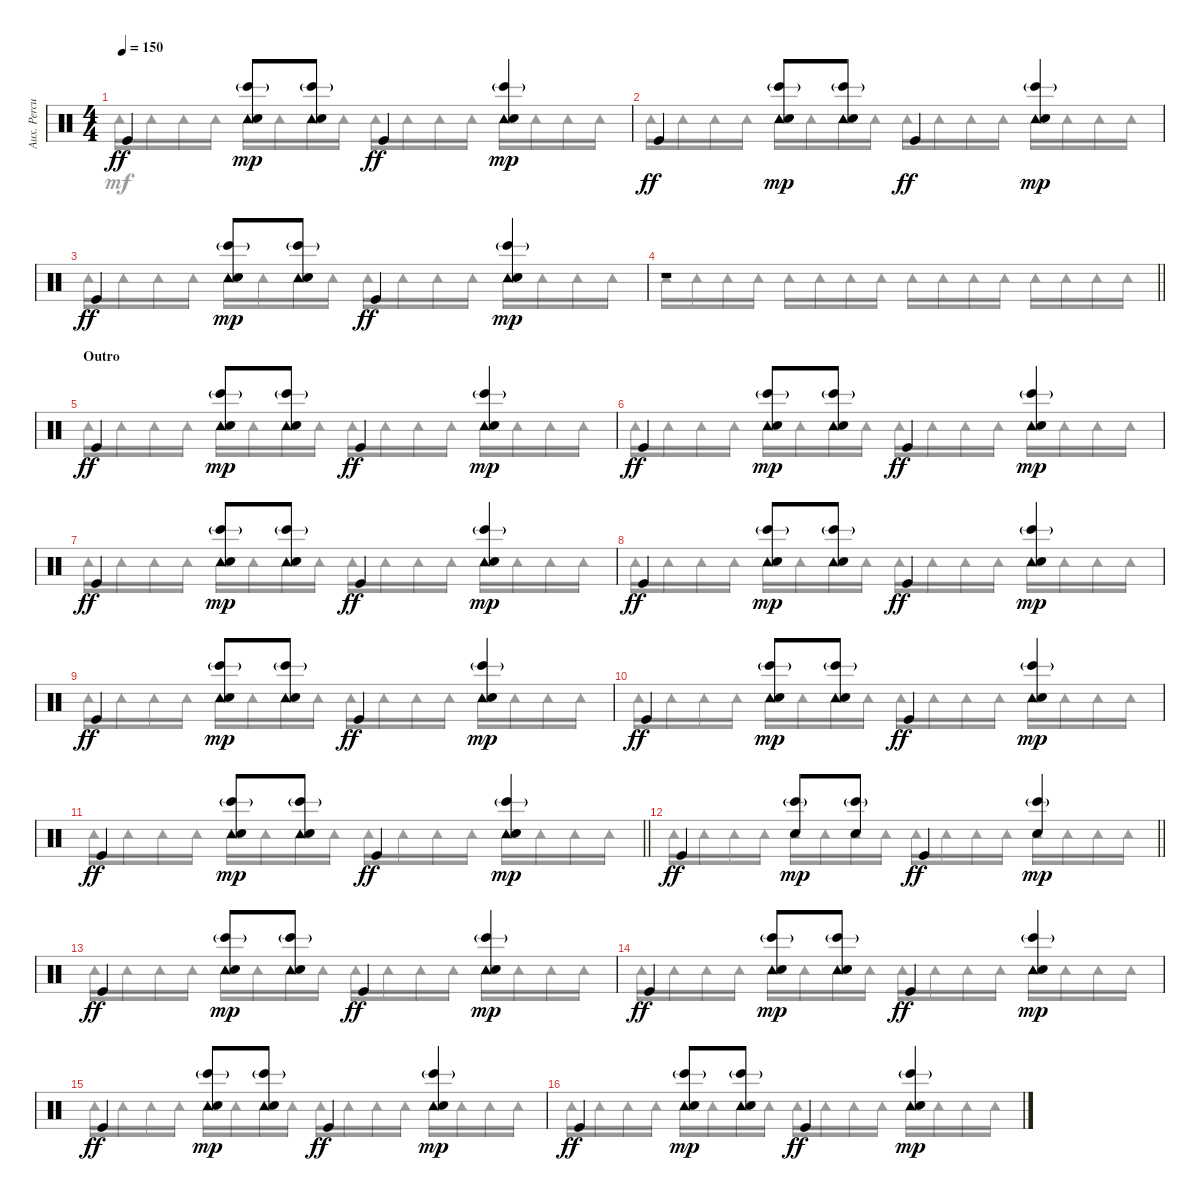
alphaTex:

\track ("Aux. Percussion" "Aux. Percu") {instrument percussion}
\staff {score}
\articulation defaults
\voice
\ts (4 4)
\tempo 150
\clef neutral
\ks c "Kick (hit)".4{dy ff}
("Tambourine (hit)" "Hand Clap (hit)" "Bongo High (hit)"{g}).8{dy mp} ("Tambourine (hit)" "Hand Clap (hit)" "Bongo High (hit)"{g}).8 "Kick (hit)".4{dy ff} ("Tambourine (hit)" "Hand Clap (hit)" "Bongo High (hit)"{g}).4{dy mp} |
"Kick (hit)".4{dy ff} ("Tambourine (hit)" "Hand Clap (hit)" "Bongo High (hit)"{g}).8{dy mp} ("Tambourine (hit)" "Hand Clap (hit)" "Bongo High (hit)"{g}).8 "Kick (hit)".4{dy ff} ("Tambourine (hit)" "Hand Clap (hit)" "Bongo High (hit)"{g}).4{dy mp} |
"Kick (hit)".4{dy ff} ("Tambourine (hit)" "Hand Clap (hit)" "Bongo High (hit)"{g}).8{dy mp} ("Tambourine (hit)" "Hand Clap (hit)" "Bongo High (hit)"{g}).8 "Kick (hit)".4{dy ff} ("Tambourine (hit)" "Hand Clap (hit)" "Bongo High (hit)"{g}).4{dy mp} |
\barLineRight lightlight
r.1 |
\section ("" "Outro")
"Kick (hit)".4{dy ff} ("Tambourine (hit)" "Hand Clap (hit)" "Bongo High (hit)"{g}).8{dy mp} ("Tambourine (hit)" "Hand Clap (hit)" "Bongo High (hit)"{g}).8 "Kick (hit)".4{dy ff} ("Tambourine (hit)" "Hand Clap (hit)" "Bongo High (hit)"{g}).4{dy mp} |
"Kick (hit)".4{dy ff} ("Tambourine (hit)" "Hand Clap (hit)" "Bongo High (hit)"{g}).8{dy mp} ("Tambourine (hit)" "Hand Clap (hit)" "Bongo High (hit)"{g}).8 "Kick (hit)".4{dy ff} ("Tambourine (hit)" "Hand Clap (hit)" "Bongo High (hit)"{g}).4{dy mp} |
"Kick (hit)".4{dy ff} ("Tambourine (hit)" "Hand Clap (hit)" "Bongo High (hit)"{g}).8{dy mp} ("Tambourine (hit)" "Hand Clap (hit)" "Bongo High (hit)"{g}).8 "Kick (hit)".4{dy ff} ("Tambourine (hit)" "Hand Clap (hit)" "Bongo High (hit)"{g}).4{dy mp} |
"Kick (hit)".4{dy ff} ("Tambourine (hit)" "Hand Clap (hit)" "Bongo High (hit)"{g}).8{dy mp} ("Tambourine (hit)" "Hand Clap (hit)" "Bongo High (hit)"{g}).8 "Kick (hit)".4{dy ff} ("Tambourine (hit)" "Hand Clap (hit)" "Bongo High (hit)"{g}).4{dy mp} |
"Kick (hit)".4{dy ff} ("Tambourine (hit)" "Hand Clap (hit)" "Bongo High (hit)"{g}).8{dy mp} ("Tambourine (hit)" "Hand Clap (hit)" "Bongo High (hit)"{g}).8 "Kick (hit)".4{dy ff} ("Tambourine (hit)" "Hand Clap (hit)" "Bongo High (hit)"{g}).4{dy mp} |
"Kick (hit)".4{dy ff} ("Tambourine (hit)" "Hand Clap (hit)" "Bongo High (hit)"{g}).8{dy mp} ("Tambourine (hit)" "Hand Clap (hit)" "Bongo High (hit)"{g}).8 "Kick (hit)".4{dy ff} ("Tambourine (hit)" "Hand Clap (hit)" "Bongo High (hit)"{g}).4{dy mp} |
\barLineRight lightlight "Kick (hit)".4{dy ff}
("Tambourine (hit)" "Hand Clap (hit)" "Bongo High (hit)"{g}).8{dy mp} ("Tambourine (hit)" "Hand Clap (hit)" "Bongo High (hit)"{g}).8 "Kick (hit)".4{dy ff} ("Tambourine (hit)" "Hand Clap (hit)" "Bongo High (hit)"{g}).4{dy mp} |
\barLineRight lightlight "Kick (hit)".4{dy ff}
("Hand Clap (hit)" "Bongo High (hit)"{g}).8{dy mp} ("Hand Clap (hit)" "Bongo High (hit)"{g}).8 "Kick (hit)".4{dy ff} ("Hand Clap (hit)" "Bongo High (hit)"{g}).4{dy mp} |
"Kick (hit)".4{dy ff} ("Tambourine (hit)" "Hand Clap (hit)" "Bongo High (hit)"{g}).8{dy mp} ("Tambourine (hit)" "Hand Clap (hit)" "Bongo High (hit)"{g}).8 "Kick (hit)".4{dy ff} ("Tambourine (hit)" "Hand Clap (hit)" "Bongo High (hit)"{g}).4{dy mp} |
"Kick (hit)".4{dy ff} ("Tambourine (hit)" "Hand Clap (hit)" "Bongo High (hit)"{g}).8{dy mp} ("Tambourine (hit)" "Hand Clap (hit)" "Bongo High (hit)"{g}).8 "Kick (hit)".4{dy ff} ("Tambourine (hit)" "Hand Clap (hit)" "Bongo High (hit)"{g}).4{dy mp} |
"Kick (hit)".4{dy ff} ("Tambourine (hit)" "Hand Clap (hit)" "Bongo High (hit)"{g}).8{dy mp} ("Tambourine (hit)" "Hand Clap (hit)" "Bongo High (hit)"{g}).8 "Kick (hit)".4{dy ff} ("Tambourine (hit)" "Hand Clap (hit)" "Bongo High (hit)"{g}).4{dy mp} |
"Kick (hit)".4{dy ff} ("Tambourine (hit)" "Hand Clap (hit)" "Bongo High (hit)"{g}).8{dy mp} ("Tambourine (hit)" "Hand Clap (hit)" "Bongo High (hit)"{g}).8 "Kick (hit)".4{dy ff} ("Tambourine (hit)" "Hand Clap (hit)" "Bongo High (hit)"{g}).4{dy mp}
\voice
\clef neutral
\ottava regular
\simile none
\ks c "Tambourine (hit)".16{dy mf} "Tambourine (hit)".16 "Tambourine (hit)".16 "Tambourine (hit)".16 "Tambourine (hit)".16 "Tambourine (hit)".16 "Tambourine (hit)".16 "Tambourine (hit)".16 "Tambourine (hit)".16 "Tambourine (hit)".16 "Tambourine (hit)".16 "Tambourine (hit)".16 "Tambourine (hit)".16 "Tambourine (hit)".16 "Tambourine (hit)".16 "Tambourine (hit)".16
|
"Tambourine (hit)".16 "Tambourine (hit)".16 "Tambourine (hit)".16 "Tambourine (hit)".16 "Tambourine (hit)".16 "Tambourine (hit)".16 "Tambourine (hit)".16 "Tambourine (hit)".16 "Tambourine (hit)".16 "Tambourine (hit)".16 "Tambourine (hit)".16 "Tambourine (hit)".16 "Tambourine (hit)".16 "Tambourine (hit)".16 "Tambourine (hit)".16 "Tambourine (hit)".16 |
"Tambourine (hit)".16 "Tambourine (hit)".16 "Tambourine (hit)".16 "Tambourine (hit)".16 "Tambourine (hit)".16 "Tambourine (hit)".16 "Tambourine (hit)".16 "Tambourine (hit)".16 "Tambourine (hit)".16 "Tambourine (hit)".16 "Tambourine (hit)".16 "Tambourine (hit)".16 "Tambourine (hit)".16 "Tambourine (hit)".16 "Tambourine (hit)".16 "Tambourine (hit)".16 |
\barLineRight lightlight "Tambourine (hit)".16 "Tambourine (hit)".16 "Tambourine (hit)".16 "Tambourine (hit)".16 "Tambourine (hit)".16 "Tambourine (hit)".16 "Tambourine (hit)".16 "Tambourine (hit)".16 "Tambourine (hit)".16 "Tambourine (hit)".16 "Tambourine (hit)".16 "Tambourine (hit)".16 "Tambourine (hit)".16 "Tambourine (hit)".16 "Tambourine (hit)".16 "Tambourine (hit)".16
|
"Tambourine (hit)".16 "Tambourine (hit)".16 "Tambourine (hit)".16 "Tambourine (hit)".16 "Tambourine (hit)".16 "Tambourine (hit)".16 "Tambourine (hit)".16 "Tambourine (hit)".16 "Tambourine (hit)".16 "Tambourine (hit)".16 "Tambourine (hit)".16 "Tambourine (hit)".16 "Tambourine (hit)".16 "Tambourine (hit)".16 "Tambourine (hit)".16 "Tambourine (hit)".16 |
"Tambourine (hit)".16 "Tambourine (hit)".16 "Tambourine (hit)".16 "Tambourine (hit)".16 "Tambourine (hit)".16 "Tambourine (hit)".16 "Tambourine (hit)".16 "Tambourine (hit)".16 "Tambourine (hit)".16 "Tambourine (hit)".16 "Tambourine (hit)".16 "Tambourine (hit)".16 "Tambourine (hit)".16 "Tambourine (hit)".16 "Tambourine (hit)".16 "Tambourine (hit)".16 |
"Tambourine (hit)".16 "Tambourine (hit)".16 "Tambourine (hit)".16 "Tambourine (hit)".16 "Tambourine (hit)".16 "Tambourine (hit)".16 "Tambourine (hit)".16 "Tambourine (hit)".16 "Tambourine (hit)".16 "Tambourine (hit)".16 "Tambourine (hit)".16 "Tambourine (hit)".16 "Tambourine (hit)".16 "Tambourine (hit)".16 "Tambourine (hit)".16 "Tambourine (hit)".16 |
"Tambourine (hit)".16 "Tambourine (hit)".16 "Tambourine (hit)".16 "Tambourine (hit)".16 "Tambourine (hit)".16 "Tambourine (hit)".16 "Tambourine (hit)".16 "Tambourine (hit)".16 "Tambourine (hit)".16 "Tambourine (hit)".16 "Tambourine (hit)".16 "Tambourine (hit)".16 "Tambourine (hit)".16 "Tambourine (hit)".16 "Tambourine (hit)".16 "Tambourine (hit)".16 |
"Tambourine (hit)".16 "Tambourine (hit)".16 "Tambourine (hit)".16 "Tambourine (hit)".16 "Tambourine (hit)".16 "Tambourine (hit)".16 "Tambourine (hit)".16 "Tambourine (hit)".16 "Tambourine (hit)".16 "Tambourine (hit)".16 "Tambourine (hit)".16 "Tambourine (hit)".16 "Tambourine (hit)".16 "Tambourine (hit)".16 "Tambourine (hit)".16 "Tambourine (hit)".16 |
"Tambourine (hit)".16 "Tambourine (hit)".16 "Tambourine (hit)".16 "Tambourine (hit)".16 "Tambourine (hit)".16 "Tambourine (hit)".16 "Tambourine (hit)".16 "Tambourine (hit)".16 "Tambourine (hit)".16 "Tambourine (hit)".16 "Tambourine (hit)".16 "Tambourine (hit)".16 "Tambourine (hit)".16 "Tambourine (hit)".16 "Tambourine (hit)".16 "Tambourine (hit)".16 |
\barLineRight lightlight "Tambourine (hit)".16 "Tambourine (hit)".16 "Tambourine (hit)".16 "Tambourine (hit)".16 "Tambourine (hit)".16 "Tambourine (hit)".16 "Tambourine (hit)".16 "Tambourine (hit)".16 "Tambourine (hit)".16 "Tambourine (hit)".16 "Tambourine (hit)".16 "Tambourine (hit)".16 "Tambourine (hit)".16 "Tambourine (hit)".16 "Tambourine (hit)".16 "Tambourine (hit)".16
|
\barLineRight lightlight "Tambourine (hit)".16 "Tambourine (hit)".16 "Tambourine (hit)".16 "Tambourine (hit)".16 "Tambourine (hit)".16 "Tambourine (hit)".16 "Tambourine (hit)".16 "Tambourine (hit)".16 "Tambourine (hit)".16 "Tambourine (hit)".16 "Tambourine (hit)".16 "Tambourine (hit)".16 "Tambourine (hit)".16 "Tambourine (hit)".16 "Tambourine (hit)".16 "Tambourine (hit)".16
|
"Tambourine (hit)".16 "Tambourine (hit)".16 "Tambourine (hit)".16 "Tambourine (hit)".16 "Tambourine (hit)".16 "Tambourine (hit)".16 "Tambourine (hit)".16 "Tambourine (hit)".16 "Tambourine (hit)".16 "Tambourine (hit)".16 "Tambourine (hit)".16 "Tambourine (hit)".16 "Tambourine (hit)".16 "Tambourine (hit)".16 "Tambourine (hit)".16 "Tambourine (hit)".16 |
"Tambourine (hit)".16 "Tambourine (hit)".16 "Tambourine (hit)".16 "Tambourine (hit)".16 "Tambourine (hit)".16 "Tambourine (hit)".16 "Tambourine (hit)".16 "Tambourine (hit)".16 "Tambourine (hit)".16 "Tambourine (hit)".16 "Tambourine (hit)".16 "Tambourine (hit)".16 "Tambourine (hit)".16 "Tambourine (hit)".16 "Tambourine (hit)".16 "Tambourine (hit)".16 |
"Tambourine (hit)".16 "Tambourine (hit)".16 "Tambourine (hit)".16 "Tambourine (hit)".16 "Tambourine (hit)".16 "Tambourine (hit)".16 "Tambourine (hit)".16 "Tambourine (hit)".16 "Tambourine (hit)".16 "Tambourine (hit)".16 "Tambourine (hit)".16 "Tambourine (hit)".16 "Tambourine (hit)".16 "Tambourine (hit)".16 "Tambourine (hit)".16 "Tambourine (hit)".16 |
"Tambourine (hit)".16 "Tambourine (hit)".16 "Tambourine (hit)".16 "Tambourine (hit)".16 "Tambourine (hit)".16 "Tambourine (hit)".16 "Tambourine (hit)".16 "Tambourine (hit)".16 "Tambourine (hit)".16 "Tambourine (hit)".16 "Tambourine (hit)".16 "Tambourine (hit)".16 "Tambourine (hit)".16 "Tambourine (hit)".16 "Tambourine (hit)".16 "Tambourine (hit)".16
